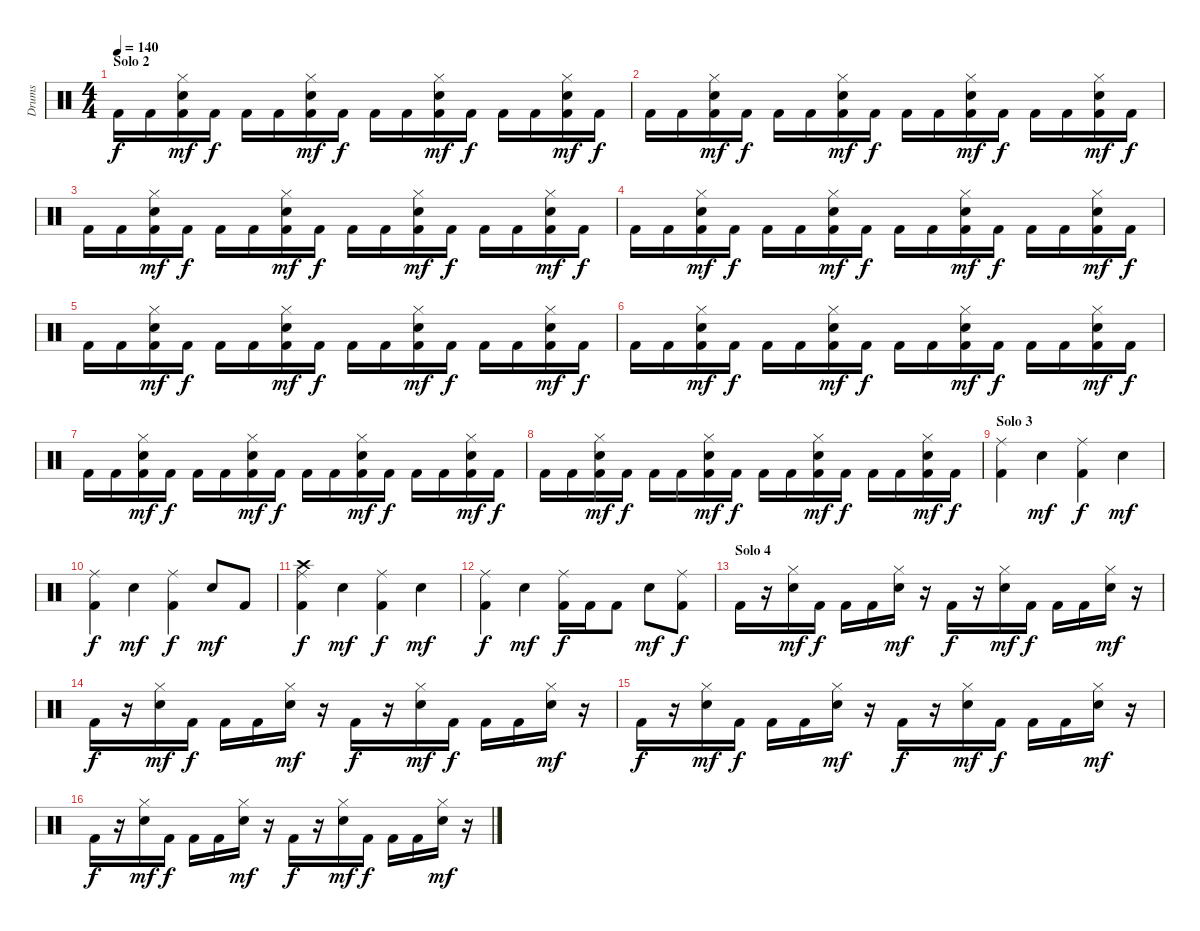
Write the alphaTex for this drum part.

\track ("Drums" "Drums") {instrument percussion}
\staff {score}
\articulation defaults
\ts (4 4)
\section ("" "Solo 2")
\tempo 140
\clef neutral
\ks c "Kick (hit) 2".16{dy f} "Kick (hit) 2".16
("Kick (hit) 2" "Snare (hit) 2" "Hi-Hat (closed)").16{dy mf} "Kick (hit) 2".16{dy f} "Kick (hit) 2".16 "Kick (hit) 2".16 ("Kick (hit) 2" "Snare (hit) 2" "Hi-Hat (closed)").16{dy mf} "Kick (hit) 2".16{dy f} "Kick (hit) 2".16 "Kick (hit) 2".16 ("Kick (hit) 2" "Snare (hit) 2" "Hi-Hat (closed)").16{dy mf} "Kick (hit) 2".16{dy f} "Kick (hit) 2".16 "Kick (hit) 2".16 ("Kick (hit) 2" "Snare (hit) 2" "Hi-Hat (closed)").16{dy mf} "Kick (hit) 2".16{dy f} |
"Kick (hit) 2".16 "Kick (hit) 2".16 ("Kick (hit) 2" "Snare (hit) 2" "Hi-Hat (closed)").16{dy mf} "Kick (hit) 2".16{dy f} "Kick (hit) 2".16 "Kick (hit) 2".16 ("Kick (hit) 2" "Snare (hit) 2" "Hi-Hat (closed)").16{dy mf} "Kick (hit) 2".16{dy f} "Kick (hit) 2".16 "Kick (hit) 2".16 ("Kick (hit) 2" "Snare (hit) 2" "Hi-Hat (closed)").16{dy mf} "Kick (hit) 2".16{dy f} "Kick (hit) 2".16 "Kick (hit) 2".16 ("Kick (hit) 2" "Snare (hit) 2" "Hi-Hat (closed)").16{dy mf} "Kick (hit) 2".16{dy f} |
"Kick (hit) 2".16 "Kick (hit) 2".16 ("Kick (hit) 2" "Snare (hit) 2" "Hi-Hat (closed)").16{dy mf} "Kick (hit) 2".16{dy f} "Kick (hit) 2".16 "Kick (hit) 2".16 ("Kick (hit) 2" "Snare (hit) 2" "Hi-Hat (closed)").16{dy mf} "Kick (hit) 2".16{dy f} "Kick (hit) 2".16 "Kick (hit) 2".16 ("Kick (hit) 2" "Snare (hit) 2" "Hi-Hat (closed)").16{dy mf} "Kick (hit) 2".16{dy f} "Kick (hit) 2".16 "Kick (hit) 2".16 ("Kick (hit) 2" "Snare (hit) 2" "Hi-Hat (closed)").16{dy mf} "Kick (hit) 2".16{dy f} |
"Kick (hit) 2".16 "Kick (hit) 2".16 ("Kick (hit) 2" "Snare (hit) 2" "Hi-Hat (closed)").16{dy mf} "Kick (hit) 2".16{dy f} "Kick (hit) 2".16 "Kick (hit) 2".16 ("Kick (hit) 2" "Snare (hit) 2" "Hi-Hat (closed)").16{dy mf} "Kick (hit) 2".16{dy f} "Kick (hit) 2".16 "Kick (hit) 2".16 ("Kick (hit) 2" "Snare (hit) 2" "Hi-Hat (closed)").16{dy mf} "Kick (hit) 2".16{dy f} "Kick (hit) 2".16 "Kick (hit) 2".16 ("Kick (hit) 2" "Snare (hit) 2" "Hi-Hat (closed)").16{dy mf} "Kick (hit) 2".16{dy f} |
"Kick (hit) 2".16 "Kick (hit) 2".16 ("Kick (hit) 2" "Snare (hit) 2" "Hi-Hat (closed)").16{dy mf} "Kick (hit) 2".16{dy f} "Kick (hit) 2".16 "Kick (hit) 2".16 ("Kick (hit) 2" "Snare (hit) 2" "Hi-Hat (closed)").16{dy mf} "Kick (hit) 2".16{dy f} "Kick (hit) 2".16 "Kick (hit) 2".16 ("Kick (hit) 2" "Snare (hit) 2" "Hi-Hat (closed)").16{dy mf} "Kick (hit) 2".16{dy f} "Kick (hit) 2".16 "Kick (hit) 2".16 ("Kick (hit) 2" "Snare (hit) 2" "Hi-Hat (closed)").16{dy mf} "Kick (hit) 2".16{dy f} |
"Kick (hit) 2".16 "Kick (hit) 2".16 ("Kick (hit) 2" "Snare (hit) 2" "Hi-Hat (closed)").16{dy mf} "Kick (hit) 2".16{dy f} "Kick (hit) 2".16 "Kick (hit) 2".16 ("Kick (hit) 2" "Snare (hit) 2" "Hi-Hat (closed)").16{dy mf} "Kick (hit) 2".16{dy f} "Kick (hit) 2".16 "Kick (hit) 2".16 ("Kick (hit) 2" "Snare (hit) 2" "Hi-Hat (closed)").16{dy mf} "Kick (hit) 2".16{dy f} "Kick (hit) 2".16 "Kick (hit) 2".16 ("Kick (hit) 2" "Snare (hit) 2" "Hi-Hat (closed)").16{dy mf} "Kick (hit) 2".16{dy f} |
"Kick (hit) 2".16 "Kick (hit) 2".16 ("Kick (hit) 2" "Snare (hit) 2" "Hi-Hat (closed)").16{dy mf} "Kick (hit) 2".16{dy f} "Kick (hit) 2".16 "Kick (hit) 2".16 ("Kick (hit) 2" "Snare (hit) 2" "Hi-Hat (closed)").16{dy mf} "Kick (hit) 2".16{dy f} "Kick (hit) 2".16 "Kick (hit) 2".16 ("Kick (hit) 2" "Snare (hit) 2" "Hi-Hat (closed)").16{dy mf} "Kick (hit) 2".16{dy f} "Kick (hit) 2".16 "Kick (hit) 2".16 ("Kick (hit) 2" "Snare (hit) 2" "Hi-Hat (closed)").16{dy mf} "Kick (hit) 2".16{dy f} |
"Kick (hit) 2".16 "Kick (hit) 2".16 ("Kick (hit) 2" "Snare (hit) 2" "Hi-Hat (closed)").16{dy mf} "Kick (hit) 2".16{dy f} "Kick (hit) 2".16 "Kick (hit) 2".16 ("Kick (hit) 2" "Snare (hit) 2" "Hi-Hat (closed)").16{dy mf} "Kick (hit) 2".16{dy f} "Kick (hit) 2".16 "Kick (hit) 2".16 ("Kick (hit) 2" "Snare (hit) 2" "Hi-Hat (closed)").16{dy mf} "Kick (hit) 2".16{dy f} "Kick (hit) 2".16 "Kick (hit) 2".16 ("Kick (hit) 2" "Snare (hit) 2" "Hi-Hat (closed)").16{dy mf} "Kick (hit) 2".16{dy f} |
\section ("" "Solo 3")
("Kick (hit) 2" "Ride (middle)").4 "Snare (hit) 2".4{dy mf} ("Kick (hit) 2" "Ride (middle)").4{dy f} "Snare (hit) 2".4{dy mf} |
("Kick (hit) 2" "Ride (middle)").4{dy f} "Snare (hit) 2".4{dy mf} ("Kick (hit) 2" "Ride (middle)").4{dy f} "Snare (hit) 2".8{dy mf} "Kick (hit) 2".8 |
("Kick (hit) 2" "Ride (middle)" "Crash high (hit)").4{dy f} "Snare (hit) 2".4{dy mf} ("Kick (hit) 2" "Ride (middle)").4{dy f} "Snare (hit) 2".4{dy mf} |
("Kick (hit) 2" "Ride (middle)").4{dy f} "Snare (hit) 2".4{dy mf} ("Kick (hit) 2" "Ride (middle)").16{dy f} "Kick (hit) 2".16 "Kick (hit) 2".8 "Snare (hit) 2".8{dy mf} ("Kick (hit) 2" "Ride (middle)").8{dy f} |
\section ("" "Solo 4")
"Kick (hit) 2".16 r.16 ("Snare (hit) 2" "Hi-Hat (closed)").16{dy mf} "Kick (hit) 2".16{dy f} "Kick (hit) 2".16 "Kick (hit) 2".16 ("Snare (hit) 2" "Hi-Hat (closed)").16{dy mf} r.16 "Kick (hit) 2".16{dy f} r.16 ("Snare (hit) 2" "Hi-Hat (closed)").16{dy mf} "Kick (hit) 2".16{dy f} "Kick (hit) 2".16 "Kick (hit) 2".16 ("Snare (hit) 2" "Hi-Hat (closed)").16{dy mf} r.16 |
"Kick (hit) 2".16{dy f} r.16 ("Snare (hit) 2" "Hi-Hat (closed)").16{dy mf} "Kick (hit) 2".16{dy f} "Kick (hit) 2".16 "Kick (hit) 2".16 ("Snare (hit) 2" "Hi-Hat (closed)").16{dy mf} r.16 "Kick (hit) 2".16{dy f} r.16 ("Snare (hit) 2" "Hi-Hat (closed)").16{dy mf} "Kick (hit) 2".16{dy f} "Kick (hit) 2".16 "Kick (hit) 2".16 ("Snare (hit) 2" "Hi-Hat (closed)").16{dy mf} r.16 |
"Kick (hit) 2".16{dy f} r.16 ("Snare (hit) 2" "Hi-Hat (closed)").16{dy mf} "Kick (hit) 2".16{dy f} "Kick (hit) 2".16 "Kick (hit) 2".16 ("Snare (hit) 2" "Hi-Hat (closed)").16{dy mf} r.16 "Kick (hit) 2".16{dy f} r.16 ("Snare (hit) 2" "Hi-Hat (closed)").16{dy mf} "Kick (hit) 2".16{dy f} "Kick (hit) 2".16 "Kick (hit) 2".16 ("Snare (hit) 2" "Hi-Hat (closed)").16{dy mf} r.16 |
"Kick (hit) 2".16{dy f} r.16 ("Snare (hit) 2" "Hi-Hat (closed)").16{dy mf} "Kick (hit) 2".16{dy f} "Kick (hit) 2".16 "Kick (hit) 2".16 ("Snare (hit) 2" "Hi-Hat (closed)").16{dy mf} r.16 "Kick (hit) 2".16{dy f} r.16 ("Snare (hit) 2" "Hi-Hat (closed)").16{dy mf} "Kick (hit) 2".16{dy f} "Kick (hit) 2".16 "Kick (hit) 2".16 ("Snare (hit) 2" "Hi-Hat (closed)").16{dy mf} r.16
